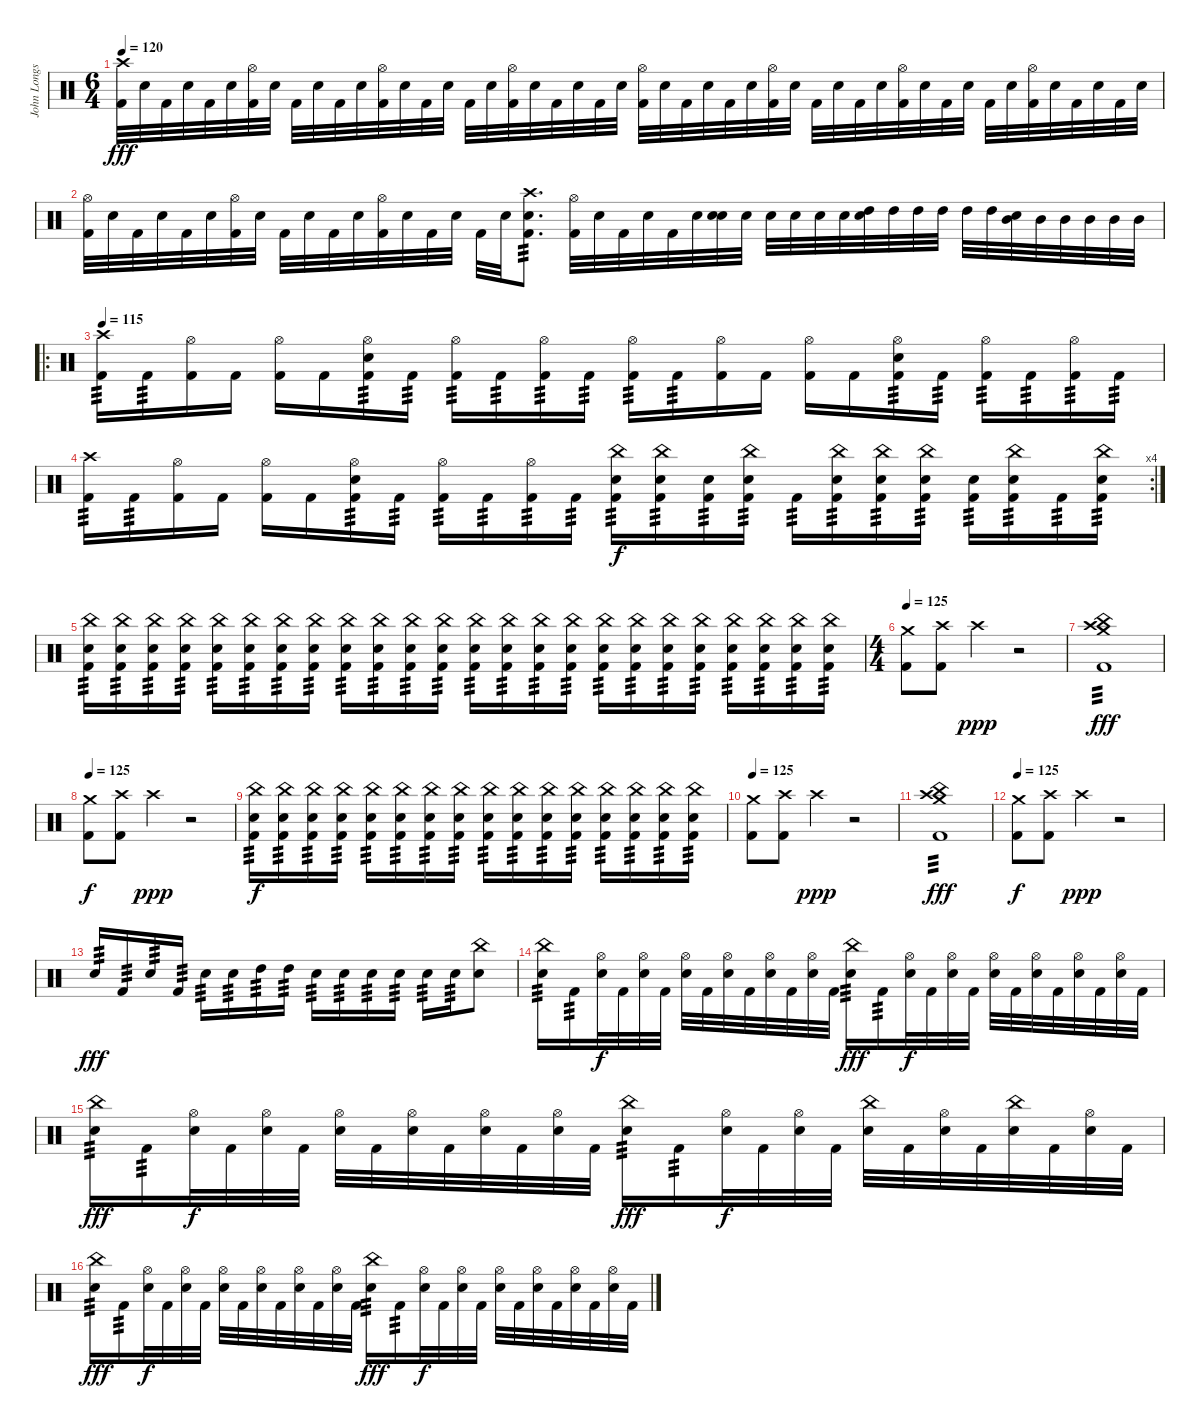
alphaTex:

\track ("John Longstreth" "John Longs") {instrument percussion}
\staff {score}
\articulation defaults
\ts (6 4)
\tempo 120
\clef neutral
\ks c
("Crash high (hit)" "Kick (hit) 2").32{dy fff} "Snare (hit) 2".32 "Kick (hit) 2".32 "Snare (hit) 2".32 "Kick (hit) 2".32 "Snare (hit) 2".32 ("Hi-Hat (open)" "Kick (hit) 2").32 "Snare (hit) 2".32 "Kick (hit) 2".32 "Snare (hit) 2".32 "Kick (hit) 2".32 "Snare (hit) 2".32 ("Hi-Hat (open)" "Kick (hit) 2").32 "Snare (hit) 2".32 "Kick (hit) 2".32 "Snare (hit) 2".32 "Kick (hit) 2".32 "Snare (hit) 2".32 ("Hi-Hat (open)" "Kick (hit) 2").32 "Snare (hit) 2".32 "Kick (hit) 2".32 "Snare (hit) 2".32 "Kick (hit) 2".32 "Snare (hit) 2".32 ("Hi-Hat (open)" "Kick (hit) 2").32 "Snare (hit) 2".32 "Kick (hit) 2".32 "Snare (hit) 2".32 "Kick (hit) 2".32 "Snare (hit) 2".32 ("Hi-Hat (open)" "Kick (hit) 2").32 "Snare (hit) 2".32 "Kick (hit) 2".32 "Snare (hit) 2".32 "Kick (hit) 2".32 "Snare (hit) 2".32 ("Hi-Hat (open)" "Kick (hit) 2").32 "Snare (hit) 2".32 "Kick (hit) 2".32 "Snare (hit) 2".32 "Kick (hit) 2".32 "Snare (hit) 2".32 ("Hi-Hat (open)" "Kick (hit) 2").32 "Snare (hit) 2".32 "Kick (hit) 2".32 "Snare (hit) 2".32 "Kick (hit) 2".32 "Snare (hit) 2".32 |
("Hi-Hat (open)" "Kick (hit) 2").32 "Snare (hit) 2".32 "Kick (hit) 2".32 "Snare (hit) 2".32 "Kick (hit) 2".32 "Snare (hit) 2".32 ("Hi-Hat (open)" "Kick (hit) 2").32 "Snare (hit) 2".32 "Kick (hit) 2".32 "Snare (hit) 2".32 "Kick (hit) 2".32 "Snare (hit) 2".32 ("Hi-Hat (open)" "Kick (hit) 2").32 "Snare (hit) 2".32 "Kick (hit) 2".32 "Snare (hit) 2".32 "Kick (hit) 2".32 "Snare (hit) 2".32 ("Kick (hit) 2" "Crash high (hit)" "Snare (hit) 2").8{d tp 3} ("Hi-Hat (open)" "Kick (hit) 2").32 "Snare (hit) 2".32 "Kick (hit) 2".32 "Snare (hit) 2".32 "Kick (hit) 2".32 "Snare (hit) 2".32 ("Snare (hit)" "Snare (hit) 2").32 "Snare (hit) 2".32 "Snare (hit) 2".32 "Snare (hit) 2".32 "Snare (hit) 2".32 "Snare (hit) 2".32 ("Snare (hit)" "High Tom (hit)").32 "High Tom (hit)".32 "High Tom (hit)".32 "High Tom (hit)".32 "High Tom (hit)".32 "High Tom (hit)".32 ("Snare (hit)" "Mid Tom (hit)").32 "Mid Tom (hit)".32 "Mid Tom (hit)".32 "Mid Tom (hit)".32 "Mid Tom (hit)".32 "Mid Tom (hit)".32 |
\ro
\tempo 115
("Crash high (hit)" "Kick (hit) 2").16{tp 3} "Kick (hit) 2".16{tp 3} ("Hi-Hat (open)" "Kick (hit) 2").16 "Kick (hit) 2".16 ("Hi-Hat (open)" "Kick (hit) 2").16 "Kick (hit) 2".16 ("Hi-Hat (open)" "Snare (hit) 2" "Kick (hit) 2").16{tp 3} "Kick (hit) 2".16{tp 3} ("Hi-Hat (open)" "Kick (hit) 2").16{tp 3} "Kick (hit) 2".16{tp 3} ("Hi-Hat (open)" "Kick (hit) 2").16{tp 3} "Kick (hit) 2".16{tp 3} ("Hi-Hat (open)" "Kick (hit) 2").16{tp 3} "Kick (hit) 2".16{tp 3} ("Hi-Hat (open)" "Kick (hit) 2").16 "Kick (hit) 2".16 ("Hi-Hat (open)" "Kick (hit) 2").16 "Kick (hit) 2".16 ("Hi-Hat (open)" "Snare (hit) 2" "Kick (hit) 2").16{tp 3} "Kick (hit) 2".16{tp 3} ("Hi-Hat (open)" "Kick (hit) 2").16{tp 3} "Kick (hit) 2".16{tp 3} ("Hi-Hat (open)" "Kick (hit) 2").16{tp 3} "Kick (hit) 2".16{tp 3} |
\rc 4
("Crash high (hit)" "Kick (hit) 2").16{tp 3} "Kick (hit) 2".16{tp 3} ("Hi-Hat (open)" "Kick (hit) 2").16 "Kick (hit) 2".16 ("Hi-Hat (open)" "Kick (hit) 2").16 "Kick (hit) 2".16 ("Hi-Hat (open)" "Snare (hit) 2" "Kick (hit) 2").16{tp 3} "Kick (hit) 2".16{tp 3} ("Hi-Hat (open)" "Kick (hit) 2").16{tp 3} "Kick (hit) 2".16{tp 3} ("Hi-Hat (open)" "Kick (hit) 2").16{tp 3} "Kick (hit) 2".16{tp 3} ("China (hit)" "Snare (hit) 2" "Kick (hit) 2").16{tp 3 dy f} ("China (hit)" "Snare (hit) 2" "Kick (hit) 2").16{tp 3} ("Snare (hit)" "Kick (hit) 2").16{tp 3} ("China (hit)" "Snare (hit) 2" "Kick (hit) 2").16{tp 3} "Kick (hit) 2".16{tp 3} ("China (hit)" "Snare (hit) 2" "Kick (hit) 2").16{tp 3} ("China (hit)" "Snare (hit) 2" "Kick (hit) 2").16{tp 3} ("China (hit)" "Snare (hit) 2" "Kick (hit) 2").16{tp 3} ("Snare (hit)" "Kick (hit) 2").16{tp 3} ("China (hit)" "Snare (hit) 2" "Kick (hit) 2").16{tp 3} "Kick (hit) 2".16{tp 3} ("China (hit)" "Snare (hit) 2" "Kick (hit) 2").16{tp 3} |
("China (hit)" "Snare (hit) 2" "Kick (hit) 2").16{tp 3} ("China (hit)" "Snare (hit) 2" "Kick (hit) 2").16{tp 3} ("China (hit)" "Snare (hit) 2" "Kick (hit) 2").16{tp 3} ("China (hit)" "Snare (hit) 2" "Kick (hit) 2").16{tp 3} ("China (hit)" "Snare (hit) 2" "Kick (hit) 2").16{tp 3} ("China (hit)" "Snare (hit) 2" "Kick (hit) 2").16{tp 3} ("China (hit)" "Snare (hit) 2" "Kick (hit) 2").16{tp 3} ("China (hit)" "Snare (hit) 2" "Kick (hit) 2").16{tp 3} ("China (hit)" "Snare (hit) 2" "Kick (hit) 2").16{tp 3} ("China (hit)" "Snare (hit) 2" "Kick (hit) 2").16{tp 3} ("China (hit)" "Snare (hit) 2" "Kick (hit) 2").16{tp 3} ("China (hit)" "Snare (hit) 2" "Kick (hit) 2").16{tp 3} ("China (hit)" "Snare (hit) 2" "Kick (hit) 2").16{tp 3} ("China (hit)" "Snare (hit) 2" "Kick (hit) 2").16{tp 3} ("China (hit)" "Snare (hit) 2" "Kick (hit) 2").16{tp 3} ("China (hit)" "Snare (hit) 2" "Kick (hit) 2").16{tp 3} ("China (hit)" "Snare (hit) 2" "Kick (hit) 2").16{tp 3} ("China (hit)" "Snare (hit) 2" "Kick (hit) 2").16{tp 3} ("China (hit)" "Snare (hit) 2" "Kick (hit) 2").16{tp 3} ("China (hit)" "Snare (hit) 2" "Kick (hit) 2").16{tp 3} ("China (hit)" "Snare (hit) 2" "Kick (hit) 2").16{tp 3} ("China (hit)" "Snare (hit) 2" "Kick (hit) 2").16{tp 3} ("China (hit)" "Snare (hit) 2" "Kick (hit) 2").16{tp 3} ("China (hit)" "Snare (hit) 2" "Kick (hit) 2").16{tp 3} |
\ts (4 4)
\tempo 125
("Crash medium (hit)" "Kick (hit) 2").8 ("Crash high (hit)" "Kick (hit) 2").8 "Crash high (hit)".4{dy ppp} r.2 |
("Crash medium (hit)" "China (hit)" "Crash high (hit)" "Kick (hit) 2").1{tp 3 dy fff} |
\tempo 125
("Crash medium (hit)" "Kick (hit) 2").8{dy f} ("Crash high (hit)" "Kick (hit) 2").8 "Crash high (hit)".4{dy ppp} r.2 |
("China (hit)" "Snare (hit) 2" "Kick (hit) 2").16{tp 3 dy f} ("China (hit)" "Snare (hit) 2" "Kick (hit) 2").16{tp 3} ("China (hit)" "Snare (hit) 2" "Kick (hit) 2").16{tp 3} ("China (hit)" "Snare (hit) 2" "Kick (hit) 2").16{tp 3} ("China (hit)" "Snare (hit) 2" "Kick (hit) 2").16{tp 3} ("China (hit)" "Snare (hit) 2" "Kick (hit) 2").16{tp 3} ("China (hit)" "Snare (hit) 2" "Kick (hit) 2").16{tp 3} ("China (hit)" "Snare (hit) 2" "Kick (hit) 2").16{tp 3} ("China (hit)" "Snare (hit) 2" "Kick (hit) 2").16{tp 3} ("China (hit)" "Snare (hit) 2" "Kick (hit) 2").16{tp 3} ("China (hit)" "Snare (hit) 2" "Kick (hit) 2").16{tp 3} ("China (hit)" "Snare (hit) 2" "Kick (hit) 2").16{tp 3} ("China (hit)" "Snare (hit) 2" "Kick (hit) 2").16{tp 3} ("China (hit)" "Snare (hit) 2" "Kick (hit) 2").16{tp 3} ("China (hit)" "Snare (hit) 2" "Kick (hit) 2").16{tp 3} ("China (hit)" "Snare (hit) 2" "Kick (hit) 2").16{tp 3} |
\tempo 125
("Crash medium (hit)" "Kick (hit) 2").8 ("Crash high (hit)" "Kick (hit) 2").8 "Crash high (hit)".4{dy ppp} r.2 |
("Crash medium (hit)" "China (hit)" "Crash high (hit)" "Kick (hit) 2").1{tp 3 dy fff} |
\tempo 125
("Crash medium (hit)" "Kick (hit) 2").8{dy f} ("Crash high (hit)" "Kick (hit) 2").8 "Crash high (hit)".4{dy ppp} r.2 |
"Snare (hit) 2".16{tp 3 dy fff} "Kick (hit) 2".16{tp 3} "Snare (hit) 2".16{tp 3} "Kick (hit) 2".16{tp 3} "Snare (hit) 2".16{tp 3} "Snare (hit) 2".16{tp 3} "High Tom (hit)".16{tp 3} "High Tom (hit)".16{tp 3} "Snare (hit) 2".16{tp 3} "Snare (hit) 2".16{tp 3} "Snare (hit) 2".16{tp 3} "Snare (hit) 2".16{tp 3} "Snare (hit) 2".16{tp 3} "Snare (hit) 2".16{tp 3} ("China (hit)" "Snare (hit) 2").8 |
("China (hit)" "Snare (hit) 2").16{tp 3} "Kick (hit) 2".16{tp 3} ("Hi-Hat (open)" "Snare (hit) 2").32{dy f} "Kick (hit) 2".32 ("Hi-Hat (open)" "Snare (hit) 2").32 "Kick (hit) 2".32 ("Hi-Hat (open)" "Snare (hit) 2").32 "Kick (hit) 2".32 ("Hi-Hat (open)" "Snare (hit) 2").32 "Kick (hit) 2".32 ("Hi-Hat (open)" "Snare (hit) 2").32 "Kick (hit) 2".32 ("Hi-Hat (open)" "Snare (hit) 2").32 "Kick (hit) 2".32 ("China (hit)" "Snare (hit) 2").16{tp 3 dy fff} "Kick (hit) 2".16{tp 3} ("Hi-Hat (open)" "Snare (hit) 2").32{dy f} "Kick (hit) 2".32 ("Hi-Hat (open)" "Snare (hit) 2").32 "Kick (hit) 2".32 ("Hi-Hat (open)" "Snare (hit) 2").32 "Kick (hit) 2".32 ("Hi-Hat (open)" "Snare (hit) 2").32 "Kick (hit) 2".32 ("Hi-Hat (open)" "Snare (hit) 2").32 "Kick (hit) 2".32 ("Hi-Hat (open)" "Snare (hit) 2").32 "Kick (hit) 2".32 |
("China (hit)" "Snare (hit) 2").16{tp 3 dy fff} "Kick (hit) 2".16{tp 3} ("Hi-Hat (open)" "Snare (hit) 2").32{dy f} "Kick (hit) 2".32 ("Hi-Hat (open)" "Snare (hit) 2").32 "Kick (hit) 2".32 ("Hi-Hat (open)" "Snare (hit) 2").32 "Kick (hit) 2".32 ("Hi-Hat (open)" "Snare (hit) 2").32 "Kick (hit) 2".32 ("Hi-Hat (open)" "Snare (hit) 2").32 "Kick (hit) 2".32 ("Hi-Hat (open)" "Snare (hit) 2").32 "Kick (hit) 2".32 ("China (hit)" "Snare (hit) 2").16{tp 3 dy fff} "Kick (hit) 2".16{tp 3} ("Hi-Hat (open)" "Snare (hit) 2").32{dy f} "Kick (hit) 2".32 ("Hi-Hat (open)" "Snare (hit) 2").32 "Kick (hit) 2".32 ("China (hit)" "Snare (hit) 2").32 "Kick (hit) 2".32 ("Hi-Hat (open)" "Snare (hit) 2").32 "Kick (hit) 2".32 ("China (hit)" "Snare (hit) 2").32 "Kick (hit) 2".32 ("Hi-Hat (open)" "Snare (hit) 2").32 "Kick (hit) 2".32 |
("China (hit)" "Snare (hit) 2").16{tp 3 dy fff} "Kick (hit) 2".16{tp 3} ("Hi-Hat (open)" "Snare (hit) 2").32{dy f} "Kick (hit) 2".32 ("Hi-Hat (open)" "Snare (hit) 2").32 "Kick (hit) 2".32 ("Hi-Hat (open)" "Snare (hit) 2").32 "Kick (hit) 2".32 ("Hi-Hat (open)" "Snare (hit) 2").32 "Kick (hit) 2".32 ("Hi-Hat (open)" "Snare (hit) 2").32 "Kick (hit) 2".32 ("Hi-Hat (open)" "Snare (hit) 2").32 "Kick (hit) 2".32 ("China (hit)" "Snare (hit) 2").16{tp 3 dy fff} "Kick (hit) 2".16{tp 3} ("Hi-Hat (open)" "Snare (hit) 2").32{dy f} "Kick (hit) 2".32 ("Hi-Hat (open)" "Snare (hit) 2").32 "Kick (hit) 2".32 ("Hi-Hat (open)" "Snare (hit) 2").32 "Kick (hit) 2".32 ("Hi-Hat (open)" "Snare (hit) 2").32 "Kick (hit) 2".32 ("Hi-Hat (open)" "Snare (hit) 2").32 "Kick (hit) 2".32 ("Hi-Hat (open)" "Snare (hit) 2").32 "Kick (hit) 2".32
